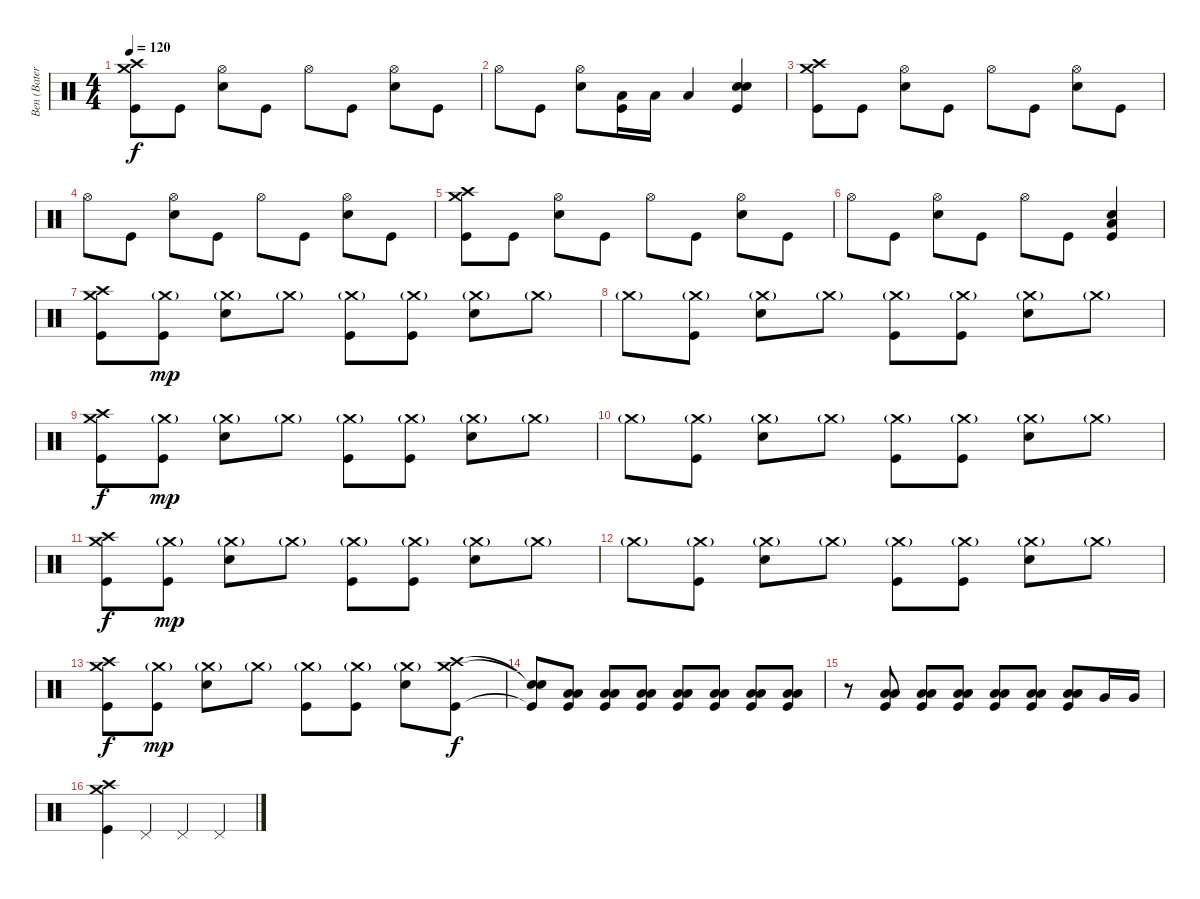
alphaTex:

\track ("Ben (Bateria)" "Ben (Bater") {instrument percussion}
\staff {score}
\articulation defaults
\ts (4 4)
\tempo 120
\clef neutral
\ks c
("Kick (hit)" "Crash high (hit)" "Crash medium (hit)").8{dy f} "Kick (hit)".8 ("Snare (hit) 2" "Hi-Hat (open)").8 "Kick (hit)".8 "Hi-Hat (open)".8 "Kick (hit)".8 ("Snare (hit) 2" "Hi-Hat (open)").8 "Kick (hit)".8 |
"Hi-Hat (open)".8 "Kick (hit)".8 ("Snare (hit) 2" "Hi-Hat (open)").8 ("Kick (hit)" "Low Tom (hit)").16 "Low Tom (hit)".16 "Low Tom (hit)".4 ("Kick (hit)" "Snare (hit) 2" "Snare (hit) 2").4 |
("Kick (hit)" "Crash high (hit)" "Crash medium (hit)").8 "Kick (hit)".8 ("Snare (hit) 2" "Hi-Hat (open)").8 "Kick (hit)".8 "Hi-Hat (open)".8 "Kick (hit)".8 ("Snare (hit) 2" "Hi-Hat (open)").8 "Kick (hit)".8 |
"Hi-Hat (open)".8 "Kick (hit)".8 ("Snare (hit) 2" "Hi-Hat (open)").8 "Kick (hit)".8 "Hi-Hat (open)".8 "Kick (hit)".8 ("Snare (hit) 2" "Hi-Hat (open)").8 "Kick (hit)".8 |
("Kick (hit)" "Crash high (hit)" "Crash medium (hit)").8 "Kick (hit)".8 ("Snare (hit) 2" "Hi-Hat (open)").8 "Kick (hit)".8 "Hi-Hat (open)".8 "Kick (hit)".8 ("Snare (hit) 2" "Hi-Hat (open)").8 "Kick (hit)".8 |
"Hi-Hat (open)".8 "Kick (hit)".8 ("Snare (hit) 2" "Hi-Hat (open)").8 "Kick (hit)".8 "Hi-Hat (open)".8 "Kick (hit)".8 ("Kick (hit)" "Snare (hit) 2" "Low Floor Tom (hit)").4 |
("Kick (hit)" "Crash high (hit)" "Crash medium (hit)").8 ("Kick (hit)" "Crash medium (hit)"{g}).8{dy mp} ("Snare (hit) 2" "Crash medium (hit)"{g}).8 "Crash medium (hit)"{g}.8 ("Kick (hit)" "Crash medium (hit)"{g}).8 ("Kick (hit)" "Crash medium (hit)"{g}).8 ("Snare (hit) 2" "Crash medium (hit)"{g}).8 "Crash medium (hit)"{g}.8 |
"Crash medium (hit)"{g}.8 ("Kick (hit)" "Crash medium (hit)"{g}).8 ("Snare (hit) 2" "Crash medium (hit)"{g}).8 "Crash medium (hit)"{g}.8 ("Kick (hit)" "Crash medium (hit)"{g}).8 ("Kick (hit)" "Crash medium (hit)"{g}).8 ("Snare (hit) 2" "Crash medium (hit)"{g}).8 "Crash medium (hit)"{g}.8 |
("Kick (hit)" "Crash high (hit)" "Crash medium (hit)").8{dy f} ("Kick (hit)" "Crash medium (hit)"{g}).8{dy mp} ("Snare (hit) 2" "Crash medium (hit)"{g}).8 "Crash medium (hit)"{g}.8 ("Kick (hit)" "Crash medium (hit)"{g}).8 ("Kick (hit)" "Crash medium (hit)"{g}).8 ("Snare (hit) 2" "Crash medium (hit)"{g}).8 "Crash medium (hit)"{g}.8 |
"Crash medium (hit)"{g}.8 ("Kick (hit)" "Crash medium (hit)"{g}).8 ("Snare (hit) 2" "Crash medium (hit)"{g}).8 "Crash medium (hit)"{g}.8 ("Kick (hit)" "Crash medium (hit)"{g}).8 ("Kick (hit)" "Crash medium (hit)"{g}).8 ("Snare (hit) 2" "Crash medium (hit)"{g}).8 "Crash medium (hit)"{g}.8 |
("Kick (hit)" "Crash high (hit)" "Crash medium (hit)").8{dy f} ("Kick (hit)" "Crash medium (hit)"{g}).8{dy mp} ("Snare (hit) 2" "Crash medium (hit)"{g}).8 "Crash medium (hit)"{g}.8 ("Kick (hit)" "Crash medium (hit)"{g}).8 ("Kick (hit)" "Crash medium (hit)"{g}).8 ("Snare (hit) 2" "Crash medium (hit)"{g}).8 "Crash medium (hit)"{g}.8 |
"Crash medium (hit)"{g}.8 ("Kick (hit)" "Crash medium (hit)"{g}).8 ("Snare (hit) 2" "Crash medium (hit)"{g}).8 "Crash medium (hit)"{g}.8 ("Kick (hit)" "Crash medium (hit)"{g}).8 ("Kick (hit)" "Crash medium (hit)"{g}).8 ("Snare (hit) 2" "Crash medium (hit)"{g}).8 "Crash medium (hit)"{g}.8 |
("Kick (hit)" "Crash high (hit)" "Crash medium (hit)").8{dy f} ("Kick (hit)" "Crash medium (hit)"{g}).8{dy mp} ("Snare (hit) 2" "Crash medium (hit)"{g}).8 "Crash medium (hit)"{g}.8 ("Kick (hit)" "Crash medium (hit)"{g}).8 ("Kick (hit)" "Crash medium (hit)"{g}).8 ("Snare (hit) 2" "Crash medium (hit)"{g}).8 ("Kick (hit)" "Crash high (hit)" "Crash medium (hit)").8{dy f} |
("Kick (hit)"{t} "Snare (hit)"{t} "Snare (hit)"{t}).8 ("Kick (hit)" "Low Tom (hit)" "Low Tom (hit)").8{bu 120} ("Kick (hit)" "Low Tom (hit)" "Low Tom (hit)").8 ("Kick (hit)" "Low Tom (hit)" "Low Tom (hit)").8 ("Kick (hit)" "Low Tom (hit)" "Low Tom (hit)").8 ("Kick (hit)" "Low Tom (hit)" "Low Tom (hit)").8 ("Kick (hit)" "Low Tom (hit)" "Low Tom (hit)").8 ("Kick (hit)" "Low Tom (hit)" "Low Tom (hit)").8{bu 120} |
r.8 ("Kick (hit)" "Low Tom (hit)" "Low Tom (hit)").8 ("Kick (hit)" "Low Tom (hit)" "Low Tom (hit)").8 ("Kick (hit)" "Low Tom (hit)" "Low Tom (hit)").8 ("Kick (hit)" "Low Tom (hit)" "Low Tom (hit)").8 ("Kick (hit)" "Low Tom (hit)" "Low Tom (hit)").8 ("Kick (hit)" "Low Tom (hit)" "Low Tom (hit)").8 "Very Low Tom (hit)".16 "Very Low Tom (hit)".16 |
("Kick (hit)" "Crash high (hit)" "Crash medium (hit)").4 "Pedal Hi-Hat (hit)".4 "Pedal Hi-Hat (hit)".4 "Pedal Hi-Hat (hit)".4
